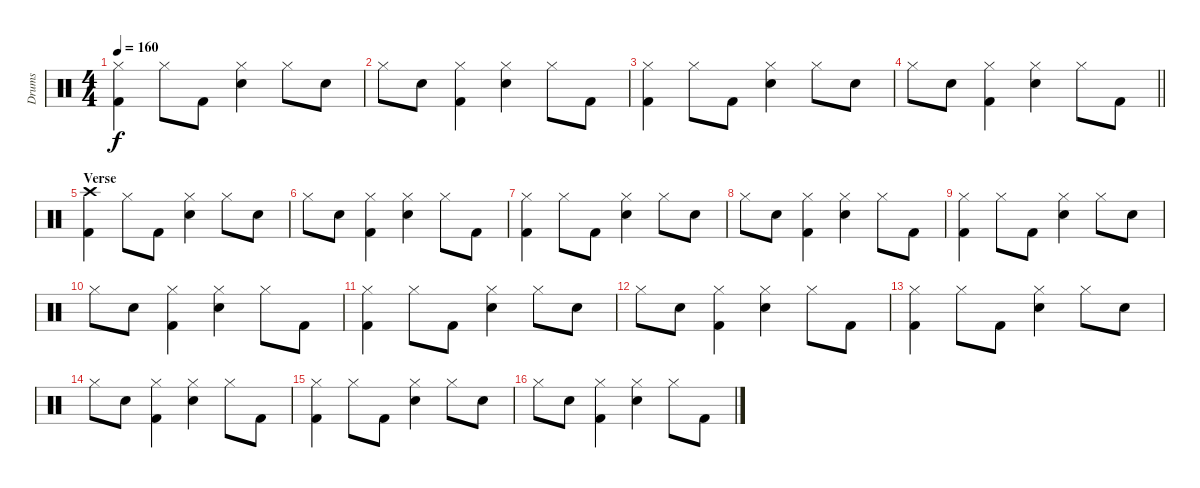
\track ("Drums" "Drums") {instrument percussion}
\staff {score}
\articulation defaults
\ts (4 4)
\tempo 160
\clef neutral
\ks c
("Hi-Hat (closed)" "Kick (hit) 2").4{dy f} "Hi-Hat (closed)".8 "Kick (hit) 2".8 ("Hi-Hat (closed)" "Snare (hit) 2").4 "Hi-Hat (closed)".8 "Snare (hit) 2".8 |
"Hi-Hat (closed)".8 "Snare (hit) 2".8 ("Hi-Hat (closed)" "Kick (hit) 2").4 ("Hi-Hat (closed)" "Snare (hit) 2").4 "Hi-Hat (closed)".8 "Kick (hit) 2".8 |
("Hi-Hat (closed)" "Kick (hit) 2").4 "Hi-Hat (closed)".8 "Kick (hit) 2".8 ("Hi-Hat (closed)" "Snare (hit) 2").4 "Hi-Hat (closed)".8 "Snare (hit) 2".8 |
\barLineRight lightlight "Hi-Hat (closed)".8 "Snare (hit) 2".8
("Hi-Hat (closed)" "Kick (hit) 2").4 ("Hi-Hat (closed)" "Snare (hit) 2").4 "Hi-Hat (closed)".8 "Kick (hit) 2".8 |
\section ("" "Verse")
("Crash high (hit)" "Kick (hit) 2").4 "Hi-Hat (closed)".8 "Kick (hit) 2".8 ("Hi-Hat (closed)" "Snare (hit) 2").4 "Hi-Hat (closed)".8 "Snare (hit) 2".8 |
"Hi-Hat (closed)".8 "Snare (hit) 2".8 ("Hi-Hat (closed)" "Kick (hit) 2").4 ("Hi-Hat (closed)" "Snare (hit) 2").4 "Hi-Hat (closed)".8 "Kick (hit) 2".8 |
("Hi-Hat (closed)" "Kick (hit) 2").4 "Hi-Hat (closed)".8 "Kick (hit) 2".8 ("Hi-Hat (closed)" "Snare (hit) 2").4 "Hi-Hat (closed)".8 "Snare (hit) 2".8 |
"Hi-Hat (closed)".8 "Snare (hit) 2".8 ("Hi-Hat (closed)" "Kick (hit) 2").4 ("Hi-Hat (closed)" "Snare (hit) 2").4 "Hi-Hat (closed)".8 "Kick (hit) 2".8 |
("Hi-Hat (closed)" "Kick (hit) 2").4 "Hi-Hat (closed)".8 "Kick (hit) 2".8 ("Hi-Hat (closed)" "Snare (hit) 2").4 "Hi-Hat (closed)".8 "Snare (hit) 2".8 |
"Hi-Hat (closed)".8 "Snare (hit) 2".8 ("Hi-Hat (closed)" "Kick (hit) 2").4 ("Hi-Hat (closed)" "Snare (hit) 2").4 "Hi-Hat (closed)".8 "Kick (hit) 2".8 |
("Hi-Hat (closed)" "Kick (hit) 2").4 "Hi-Hat (closed)".8 "Kick (hit) 2".8 ("Hi-Hat (closed)" "Snare (hit) 2").4 "Hi-Hat (closed)".8 "Snare (hit) 2".8 |
"Hi-Hat (closed)".8 "Snare (hit) 2".8 ("Hi-Hat (closed)" "Kick (hit) 2").4 ("Hi-Hat (closed)" "Snare (hit) 2").4 "Hi-Hat (closed)".8 "Kick (hit) 2".8 |
("Hi-Hat (closed)" "Kick (hit) 2").4 "Hi-Hat (closed)".8 "Kick (hit) 2".8 ("Hi-Hat (closed)" "Snare (hit) 2").4 "Hi-Hat (closed)".8 "Snare (hit) 2".8 |
"Hi-Hat (closed)".8 "Snare (hit) 2".8 ("Hi-Hat (closed)" "Kick (hit) 2").4 ("Hi-Hat (closed)" "Snare (hit) 2").4 "Hi-Hat (closed)".8 "Kick (hit) 2".8 |
("Hi-Hat (closed)" "Kick (hit) 2").4 "Hi-Hat (closed)".8 "Kick (hit) 2".8 ("Hi-Hat (closed)" "Snare (hit) 2").4 "Hi-Hat (closed)".8 "Snare (hit) 2".8 |
"Hi-Hat (closed)".8 "Snare (hit) 2".8 ("Hi-Hat (closed)" "Kick (hit) 2").4 ("Hi-Hat (closed)" "Snare (hit) 2").4 "Hi-Hat (closed)".8 "Kick (hit) 2".8
